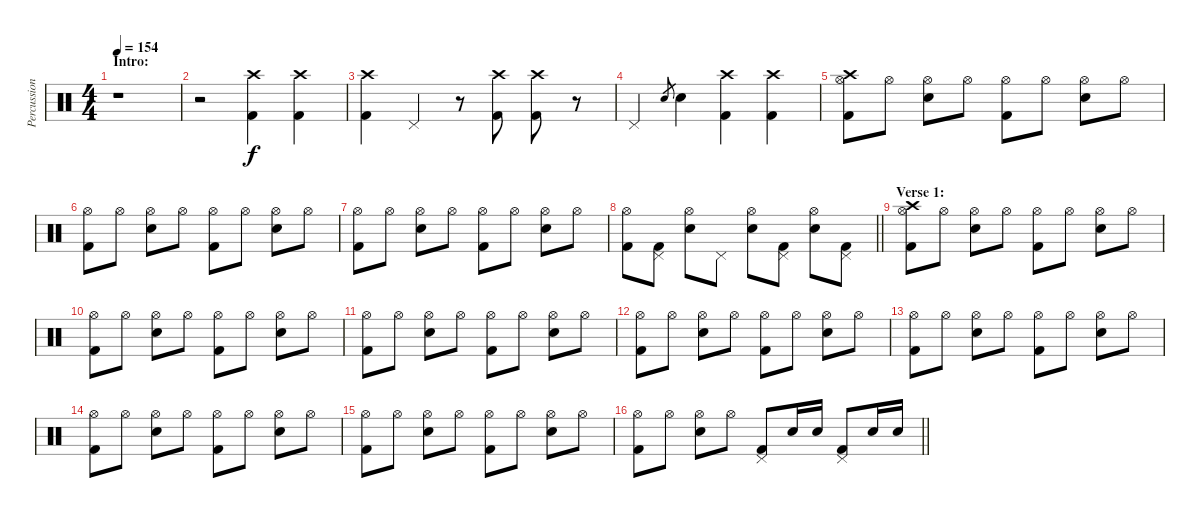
\track ("Percussion" "Percussion") {instrument percussion}
\staff {score}
\articulation defaults
\ts (4 4)
\section ("" "Intro:")
\tempo 154
\clef neutral
\ks c
r.1{dy f} |
r.2 ("Crash high (hit)" "Kick (hit) 2").4 ("Crash high (hit)" "Kick (hit) 2").4 |
("Crash high (hit)" "Kick (hit) 2").4 "Pedal Hi-Hat (hit)".4 r.8 ("Crash high (hit)" "Kick (hit) 2").8 ("Crash high (hit)" "Kick (hit) 2").8 r.8 |
"Pedal Hi-Hat (hit)".4 "Snare (hit) 2".8{gr} "Snare (hit) 2".4 ("Crash high (hit)" "Kick (hit) 2").4 ("Crash high (hit)" "Kick (hit) 2").4 |
("Hi-Hat (open)" "Crash high (hit)" "Kick (hit) 2").8 "Hi-Hat (open)".8 ("Hi-Hat (open)" "Snare (hit) 2").8 "Hi-Hat (open)".8 ("Hi-Hat (open)" "Kick (hit) 2").8 "Hi-Hat (open)".8 ("Hi-Hat (open)" "Snare (hit) 2").8 "Hi-Hat (open)".8 |
("Hi-Hat (open)" "Kick (hit) 2").8 "Hi-Hat (open)".8 ("Hi-Hat (open)" "Snare (hit) 2").8 "Hi-Hat (open)".8 ("Hi-Hat (open)" "Kick (hit) 2").8 "Hi-Hat (open)".8 ("Hi-Hat (open)" "Snare (hit) 2").8 "Hi-Hat (open)".8 |
("Hi-Hat (open)" "Kick (hit) 2").8 "Hi-Hat (open)".8 ("Hi-Hat (open)" "Snare (hit) 2").8 "Hi-Hat (open)".8 ("Hi-Hat (open)" "Kick (hit) 2").8 "Hi-Hat (open)".8 ("Hi-Hat (open)" "Snare (hit) 2").8 "Hi-Hat (open)".8 |
\barLineRight lightlight
("Hi-Hat (open)" "Kick (hit) 2").8 ("Pedal Hi-Hat (hit)" "Kick (hit) 2").8 ("Hi-Hat (open)" "Snare (hit) 2").8 "Pedal Hi-Hat (hit)".8 ("Hi-Hat (open)" "Snare (hit) 2").8 ("Pedal Hi-Hat (hit)" "Kick (hit) 2").8 ("Hi-Hat (open)" "Snare (hit) 2").8 ("Pedal Hi-Hat (hit)" "Kick (hit) 2").8 |
\section ("" "Verse 1:")
("Hi-Hat (open)" "Crash high (hit)" "Kick (hit) 2").8 "Hi-Hat (open)".8 ("Hi-Hat (open)" "Snare (hit) 2").8 "Hi-Hat (open)".8 ("Hi-Hat (open)" "Kick (hit) 2").8 "Hi-Hat (open)".8 ("Hi-Hat (open)" "Snare (hit) 2").8 "Hi-Hat (open)".8 |
("Hi-Hat (open)" "Kick (hit) 2").8 "Hi-Hat (open)".8 ("Hi-Hat (open)" "Snare (hit) 2").8 "Hi-Hat (open)".8 ("Hi-Hat (open)" "Kick (hit) 2").8 "Hi-Hat (open)".8 ("Hi-Hat (open)" "Snare (hit) 2").8 "Hi-Hat (open)".8 |
("Hi-Hat (open)" "Kick (hit) 2").8 "Hi-Hat (open)".8 ("Hi-Hat (open)" "Snare (hit) 2").8 "Hi-Hat (open)".8 ("Hi-Hat (open)" "Kick (hit) 2").8 "Hi-Hat (open)".8 ("Hi-Hat (open)" "Snare (hit) 2").8 "Hi-Hat (open)".8 |
("Hi-Hat (open)" "Kick (hit) 2").8 "Hi-Hat (open)".8 ("Hi-Hat (open)" "Snare (hit) 2").8 "Hi-Hat (open)".8 ("Hi-Hat (open)" "Kick (hit) 2").8 "Hi-Hat (open)".8 ("Hi-Hat (open)" "Snare (hit) 2").8 "Hi-Hat (open)".8 |
("Hi-Hat (open)" "Kick (hit) 2").8 "Hi-Hat (open)".8 ("Hi-Hat (open)" "Snare (hit) 2").8 "Hi-Hat (open)".8 ("Hi-Hat (open)" "Kick (hit) 2").8 "Hi-Hat (open)".8 ("Hi-Hat (open)" "Snare (hit) 2").8 "Hi-Hat (open)".8 |
("Hi-Hat (open)" "Kick (hit) 2").8 "Hi-Hat (open)".8 ("Hi-Hat (open)" "Snare (hit) 2").8 "Hi-Hat (open)".8 ("Hi-Hat (open)" "Kick (hit) 2").8 "Hi-Hat (open)".8 ("Hi-Hat (open)" "Snare (hit) 2").8 "Hi-Hat (open)".8 |
("Hi-Hat (open)" "Kick (hit) 2").8 "Hi-Hat (open)".8 ("Hi-Hat (open)" "Snare (hit) 2").8 "Hi-Hat (open)".8 ("Hi-Hat (open)" "Kick (hit) 2").8 "Hi-Hat (open)".8 ("Hi-Hat (open)" "Snare (hit) 2").8 "Hi-Hat (open)".8 |
\barLineRight lightlight
("Hi-Hat (open)" "Kick (hit) 2").8 "Hi-Hat (open)".8 ("Hi-Hat (open)" "Snare (hit) 2").8 "Hi-Hat (open)".8 ("Pedal Hi-Hat (hit)" "Kick (hit) 2").8 "Snare (hit) 2".16 "Snare (hit) 2".16 ("Pedal Hi-Hat (hit)" "Kick (hit) 2").8 "Snare (hit) 2".16 "Snare (hit) 2".16
